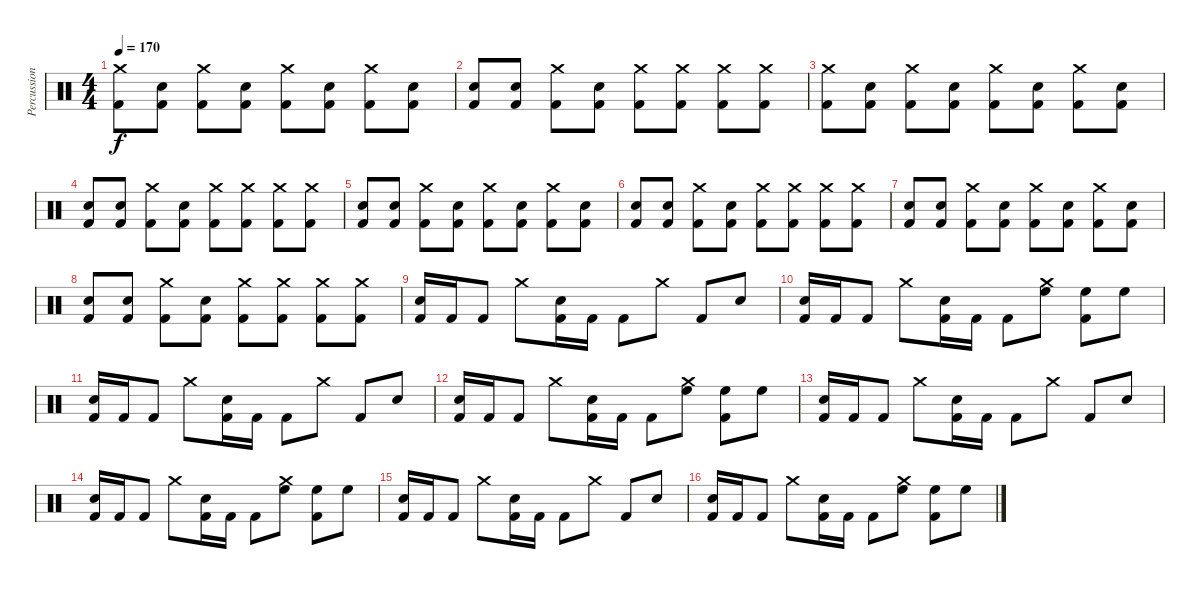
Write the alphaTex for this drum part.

\track ("Percussion" "Percussion") {instrument percussion}
\staff {score}
\articulation defaults
\ts (4 4)
\tempo 170
\clef neutral
\ks c
("Crash medium (hit)" "Kick (hit) 2").8{dy f} ("Electric Snare (hit)" "Kick (hit) 2").8 ("Crash medium (hit)" "Kick (hit) 2").8 ("Electric Snare (hit)" "Kick (hit) 2").8 ("Crash medium (hit)" "Kick (hit) 2").8 ("Electric Snare (hit)" "Kick (hit) 2").8 ("Crash medium (hit)" "Kick (hit) 2").8 ("Electric Snare (hit)" "Kick (hit) 2").8 |
("Electric Snare (hit)" "Kick (hit) 2").8 ("Electric Snare (hit)" "Kick (hit) 2").8 ("Crash medium (hit)" "Kick (hit) 2").8 ("Electric Snare (hit)" "Kick (hit) 2").8 ("Crash medium (hit)" "Kick (hit) 2").8 ("Crash medium (hit)" "Kick (hit) 2").8 ("Crash medium (hit)" "Kick (hit) 2").8 ("Crash medium (hit)" "Kick (hit) 2").8 |
("Crash medium (hit)" "Kick (hit) 2").8 ("Electric Snare (hit)" "Kick (hit) 2").8 ("Crash medium (hit)" "Kick (hit) 2").8 ("Electric Snare (hit)" "Kick (hit) 2").8 ("Crash medium (hit)" "Kick (hit) 2").8 ("Electric Snare (hit)" "Kick (hit) 2").8 ("Crash medium (hit)" "Kick (hit) 2").8 ("Electric Snare (hit)" "Kick (hit) 2").8 |
("Electric Snare (hit)" "Kick (hit) 2").8 ("Electric Snare (hit)" "Kick (hit) 2").8 ("Crash medium (hit)" "Kick (hit) 2").8 ("Electric Snare (hit)" "Kick (hit) 2").8 ("Crash medium (hit)" "Kick (hit) 2").8 ("Crash medium (hit)" "Kick (hit) 2").8 ("Crash medium (hit)" "Kick (hit) 2").8 ("Crash medium (hit)" "Kick (hit) 2").8 |
("Electric Snare (hit)" "Kick (hit) 2").8 ("Electric Snare (hit)" "Kick (hit) 2").8 ("Crash medium (hit)" "Kick (hit) 2").8 ("Electric Snare (hit)" "Kick (hit) 2").8 ("Crash medium (hit)" "Kick (hit) 2").8 ("Electric Snare (hit)" "Kick (hit) 2").8 ("Crash medium (hit)" "Kick (hit) 2").8 ("Electric Snare (hit)" "Kick (hit) 2").8 |
("Electric Snare (hit)" "Kick (hit) 2").8 ("Electric Snare (hit)" "Kick (hit) 2").8 ("Crash medium (hit)" "Kick (hit) 2").8 ("Electric Snare (hit)" "Kick (hit) 2").8 ("Crash medium (hit)" "Kick (hit) 2").8 ("Crash medium (hit)" "Kick (hit) 2").8 ("Crash medium (hit)" "Kick (hit) 2").8 ("Crash medium (hit)" "Kick (hit) 2").8 |
("Electric Snare (hit)" "Kick (hit) 2").8 ("Electric Snare (hit)" "Kick (hit) 2").8 ("Crash medium (hit)" "Kick (hit) 2").8 ("Electric Snare (hit)" "Kick (hit) 2").8 ("Crash medium (hit)" "Kick (hit) 2").8 ("Electric Snare (hit)" "Kick (hit) 2").8 ("Crash medium (hit)" "Kick (hit) 2").8 ("Electric Snare (hit)" "Kick (hit) 2").8 |
("Electric Snare (hit)" "Kick (hit) 2").8 ("Electric Snare (hit)" "Kick (hit) 2").8 ("Crash medium (hit)" "Kick (hit) 2").8 ("Electric Snare (hit)" "Kick (hit) 2").8 ("Crash medium (hit)" "Kick (hit) 2").8 ("Crash medium (hit)" "Kick (hit) 2").8 ("Crash medium (hit)" "Kick (hit) 2").8 ("Crash medium (hit)" "Kick (hit) 2").8 |
("Electric Snare (hit)" "Kick (hit) 2").16 "Kick (hit) 2".16 "Kick (hit) 2".8 "Crash medium (hit)".8 ("Electric Snare (hit)" "Kick (hit) 2").16 "Kick (hit) 2".16 "Kick (hit) 2".8 "Crash medium (hit)".8 "Kick (hit) 2".8 "Electric Snare (hit)".8 |
("Electric Snare (hit)" "Kick (hit) 2").16 "Kick (hit) 2".16 "Kick (hit) 2".8 "Crash medium (hit)".8 ("Electric Snare (hit)" "Kick (hit) 2").16 "Kick (hit) 2".16 "Kick (hit) 2".8 ("Crash medium (hit)" "High Floor Tom (hit)").8 ("High Floor Tom (hit)" "Kick (hit) 2").8 "High Floor Tom (hit)".8 |
("Electric Snare (hit)" "Kick (hit) 2").16 "Kick (hit) 2".16 "Kick (hit) 2".8 "Crash medium (hit)".8 ("Electric Snare (hit)" "Kick (hit) 2").16 "Kick (hit) 2".16 "Kick (hit) 2".8 "Crash medium (hit)".8 "Kick (hit) 2".8 "Electric Snare (hit)".8 |
("Electric Snare (hit)" "Kick (hit) 2").16 "Kick (hit) 2".16 "Kick (hit) 2".8 "Crash medium (hit)".8 ("Electric Snare (hit)" "Kick (hit) 2").16 "Kick (hit) 2".16 "Kick (hit) 2".8 ("Crash medium (hit)" "High Floor Tom (hit)").8 ("High Floor Tom (hit)" "Kick (hit) 2").8 "High Floor Tom (hit)".8 |
("Electric Snare (hit)" "Kick (hit) 2").16 "Kick (hit) 2".16 "Kick (hit) 2".8 "Crash medium (hit)".8 ("Electric Snare (hit)" "Kick (hit) 2").16 "Kick (hit) 2".16 "Kick (hit) 2".8 "Crash medium (hit)".8 "Kick (hit) 2".8 "Electric Snare (hit)".8 |
("Electric Snare (hit)" "Kick (hit) 2").16 "Kick (hit) 2".16 "Kick (hit) 2".8 "Crash medium (hit)".8 ("Electric Snare (hit)" "Kick (hit) 2").16 "Kick (hit) 2".16 "Kick (hit) 2".8 ("Crash medium (hit)" "High Floor Tom (hit)").8 ("High Floor Tom (hit)" "Kick (hit) 2").8 "High Floor Tom (hit)".8 |
("Electric Snare (hit)" "Kick (hit) 2").16 "Kick (hit) 2".16 "Kick (hit) 2".8 "Crash medium (hit)".8 ("Electric Snare (hit)" "Kick (hit) 2").16 "Kick (hit) 2".16 "Kick (hit) 2".8 "Crash medium (hit)".8 "Kick (hit) 2".8 "Electric Snare (hit)".8 |
("Electric Snare (hit)" "Kick (hit) 2").16 "Kick (hit) 2".16 "Kick (hit) 2".8 "Crash medium (hit)".8 ("Electric Snare (hit)" "Kick (hit) 2").16 "Kick (hit) 2".16 "Kick (hit) 2".8 ("Crash medium (hit)" "High Floor Tom (hit)").8 ("High Floor Tom (hit)" "Kick (hit) 2").8 "High Floor Tom (hit)".8
